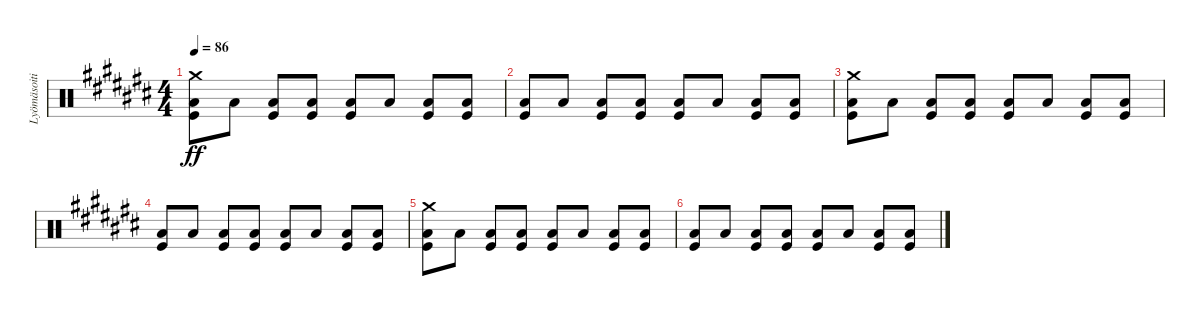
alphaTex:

\track ("Lyömäsoitin" "Lyömäsoiti") {instrument percussion}
\staff {score}
\articulation defaults
\ts (4 4)
\tempo 86
\clef neutral
\ks c#
("Crash medium (hit)" "Low Floor Tom (hit)" "Kick (hit)").8{dy ff} "Low Floor Tom (hit)".8 ("Low Floor Tom (hit)" "Kick (hit)").8 ("Low Floor Tom (hit)" "Kick (hit)").8 ("Low Floor Tom (hit)" "Kick (hit)").8 "Low Floor Tom (hit)".8 ("Low Floor Tom (hit)" "Kick (hit)").8 ("Low Floor Tom (hit)" "Kick (hit)").8 |
("Low Floor Tom (hit)" "Kick (hit)").8 "Low Floor Tom (hit)".8 ("Low Floor Tom (hit)" "Kick (hit)").8 ("Low Floor Tom (hit)" "Kick (hit)").8 ("Low Floor Tom (hit)" "Kick (hit)").8 "Low Floor Tom (hit)".8 ("Low Floor Tom (hit)" "Kick (hit)").8 ("Low Floor Tom (hit)" "Kick (hit)").8 |
("Crash medium (hit)" "Low Floor Tom (hit)" "Kick (hit)").8 "Low Floor Tom (hit)".8 ("Low Floor Tom (hit)" "Kick (hit)").8 ("Low Floor Tom (hit)" "Kick (hit)").8 ("Low Floor Tom (hit)" "Kick (hit)").8 "Low Floor Tom (hit)".8 ("Low Floor Tom (hit)" "Kick (hit)").8 ("Low Floor Tom (hit)" "Kick (hit)").8 |
("Low Floor Tom (hit)" "Kick (hit)").8 "Low Floor Tom (hit)".8 ("Low Floor Tom (hit)" "Kick (hit)").8 ("Low Floor Tom (hit)" "Kick (hit)").8 ("Low Floor Tom (hit)" "Kick (hit)").8 "Low Floor Tom (hit)".8 ("Low Floor Tom (hit)" "Kick (hit)").8 ("Low Floor Tom (hit)" "Kick (hit)").8 |
("Crash medium (hit)" "Low Floor Tom (hit)" "Kick (hit)").8 "Low Floor Tom (hit)".8 ("Low Floor Tom (hit)" "Kick (hit)").8 ("Low Floor Tom (hit)" "Kick (hit)").8 ("Low Floor Tom (hit)" "Kick (hit)").8 "Low Floor Tom (hit)".8 ("Low Floor Tom (hit)" "Kick (hit)").8 ("Low Floor Tom (hit)" "Kick (hit)").8 |
("Low Floor Tom (hit)" "Kick (hit)").8 "Low Floor Tom (hit)".8 ("Low Floor Tom (hit)" "Kick (hit)").8 ("Low Floor Tom (hit)" "Kick (hit)").8 ("Low Floor Tom (hit)" "Kick (hit)").8 "Low Floor Tom (hit)".8 ("Low Floor Tom (hit)" "Kick (hit)").8 ("Low Floor Tom (hit)" "Kick (hit)").8
